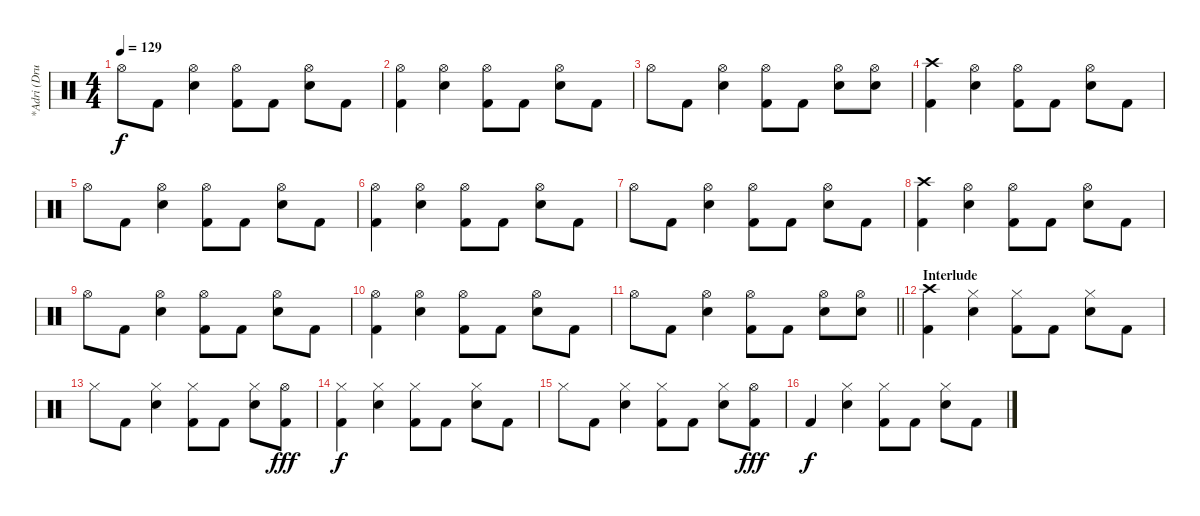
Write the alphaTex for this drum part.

\track ("*Adri (Drum)" "*Adri (Dru") {instrument percussion}
\staff {score}
\articulation defaults
\ts (4 4)
\tempo 129
\clef neutral
\ks c "Hi-Hat (open)".8{dy f} "Kick (hit) 2".8
("Hi-Hat (open)" "Snare (hit) 2").4 ("Hi-Hat (open)" "Kick (hit) 2").8 "Kick (hit) 2".8 ("Hi-Hat (open)" "Snare (hit) 2").8 "Kick (hit) 2".8 |
("Hi-Hat (open)" "Kick (hit) 2").4 ("Hi-Hat (open)" "Snare (hit) 2").4 ("Hi-Hat (open)" "Kick (hit) 2").8 "Kick (hit) 2".8 ("Hi-Hat (open)" "Snare (hit) 2").8 "Kick (hit) 2".8 |
"Hi-Hat (open)".8 "Kick (hit) 2".8 ("Hi-Hat (open)" "Snare (hit) 2").4 ("Hi-Hat (open)" "Kick (hit) 2").8 "Kick (hit) 2".8 ("Hi-Hat (open)" "Snare (hit) 2").8 ("Hi-Hat (open)" "Snare (hit) 2").8 |
("Crash high (hit)" "Kick (hit) 2").4 ("Hi-Hat (open)" "Snare (hit) 2").4 ("Hi-Hat (open)" "Kick (hit) 2").8 "Kick (hit) 2".8 ("Hi-Hat (open)" "Snare (hit) 2").8 "Kick (hit) 2".8 |
"Hi-Hat (open)".8 "Kick (hit) 2".8 ("Hi-Hat (open)" "Snare (hit) 2").4 ("Hi-Hat (open)" "Kick (hit) 2").8 "Kick (hit) 2".8 ("Hi-Hat (open)" "Snare (hit) 2").8 "Kick (hit) 2".8 |
("Hi-Hat (open)" "Kick (hit) 2").4 ("Hi-Hat (open)" "Snare (hit) 2").4 ("Hi-Hat (open)" "Kick (hit) 2").8 "Kick (hit) 2".8 ("Hi-Hat (open)" "Snare (hit) 2").8 "Kick (hit) 2".8 |
"Hi-Hat (open)".8 "Kick (hit) 2".8 ("Hi-Hat (open)" "Snare (hit) 2").4 ("Hi-Hat (open)" "Kick (hit) 2").8 "Kick (hit) 2".8 ("Hi-Hat (open)" "Snare (hit) 2").8 "Kick (hit) 2".8 |
("Crash high (hit)" "Kick (hit) 2").4 ("Hi-Hat (open)" "Snare (hit) 2").4 ("Hi-Hat (open)" "Kick (hit) 2").8 "Kick (hit) 2".8 ("Hi-Hat (open)" "Snare (hit) 2").8 "Kick (hit) 2".8 |
"Hi-Hat (open)".8 "Kick (hit) 2".8 ("Hi-Hat (open)" "Snare (hit) 2").4 ("Hi-Hat (open)" "Kick (hit) 2").8 "Kick (hit) 2".8 ("Hi-Hat (open)" "Snare (hit) 2").8 "Kick (hit) 2".8 |
("Hi-Hat (open)" "Kick (hit) 2").4 ("Hi-Hat (open)" "Snare (hit) 2").4 ("Hi-Hat (open)" "Kick (hit) 2").8 "Kick (hit) 2".8 ("Hi-Hat (open)" "Snare (hit) 2").8 "Kick (hit) 2".8 |
\barLineRight lightlight "Hi-Hat (open)".8 "Kick (hit) 2".8
("Hi-Hat (open)" "Snare (hit) 2").4 ("Hi-Hat (open)" "Kick (hit) 2").8 "Kick (hit) 2".8 ("Hi-Hat (open)" "Snare (hit) 2").8 ("Hi-Hat (open)" "Snare (hit) 2").8 |
\section ("" "Interlude")
("Crash high (hit)" "Kick (hit) 2").4 ("Hi-Hat (closed)" "Snare (hit) 2").4 ("Hi-Hat (closed)" "Kick (hit) 2").8 "Kick (hit) 2".8 ("Hi-Hat (closed)" "Snare (hit) 2").8 "Kick (hit) 2".8 |
"Hi-Hat (closed)".8 "Kick (hit) 2".8 ("Hi-Hat (closed)" "Snare (hit) 2").4 ("Hi-Hat (closed)" "Kick (hit) 2").8 "Kick (hit) 2".8 ("Hi-Hat (closed)" "Snare (hit) 2").8 ("Hi-Hat (open)" "Kick (hit) 2").8{dy fff} |
("Hi-Hat (closed)" "Kick (hit) 2").4{dy f} ("Hi-Hat (closed)" "Snare (hit) 2").4 ("Hi-Hat (closed)" "Kick (hit) 2").8 "Kick (hit) 2".8 ("Hi-Hat (closed)" "Snare (hit) 2").8 "Kick (hit) 2".8 |
"Hi-Hat (closed)".8 "Kick (hit) 2".8 ("Hi-Hat (closed)" "Snare (hit) 2").4 ("Hi-Hat (closed)" "Kick (hit) 2").8 "Kick (hit) 2".8 ("Hi-Hat (closed)" "Snare (hit) 2").8 ("Hi-Hat (open)" "Kick (hit) 2").8{dy fff} |
"Kick (hit) 2".4{dy f} ("Hi-Hat (closed)" "Snare (hit) 2").4 ("Hi-Hat (closed)" "Kick (hit) 2").8 "Kick (hit) 2".8 ("Hi-Hat (closed)" "Snare (hit) 2").8 "Kick (hit) 2".8
